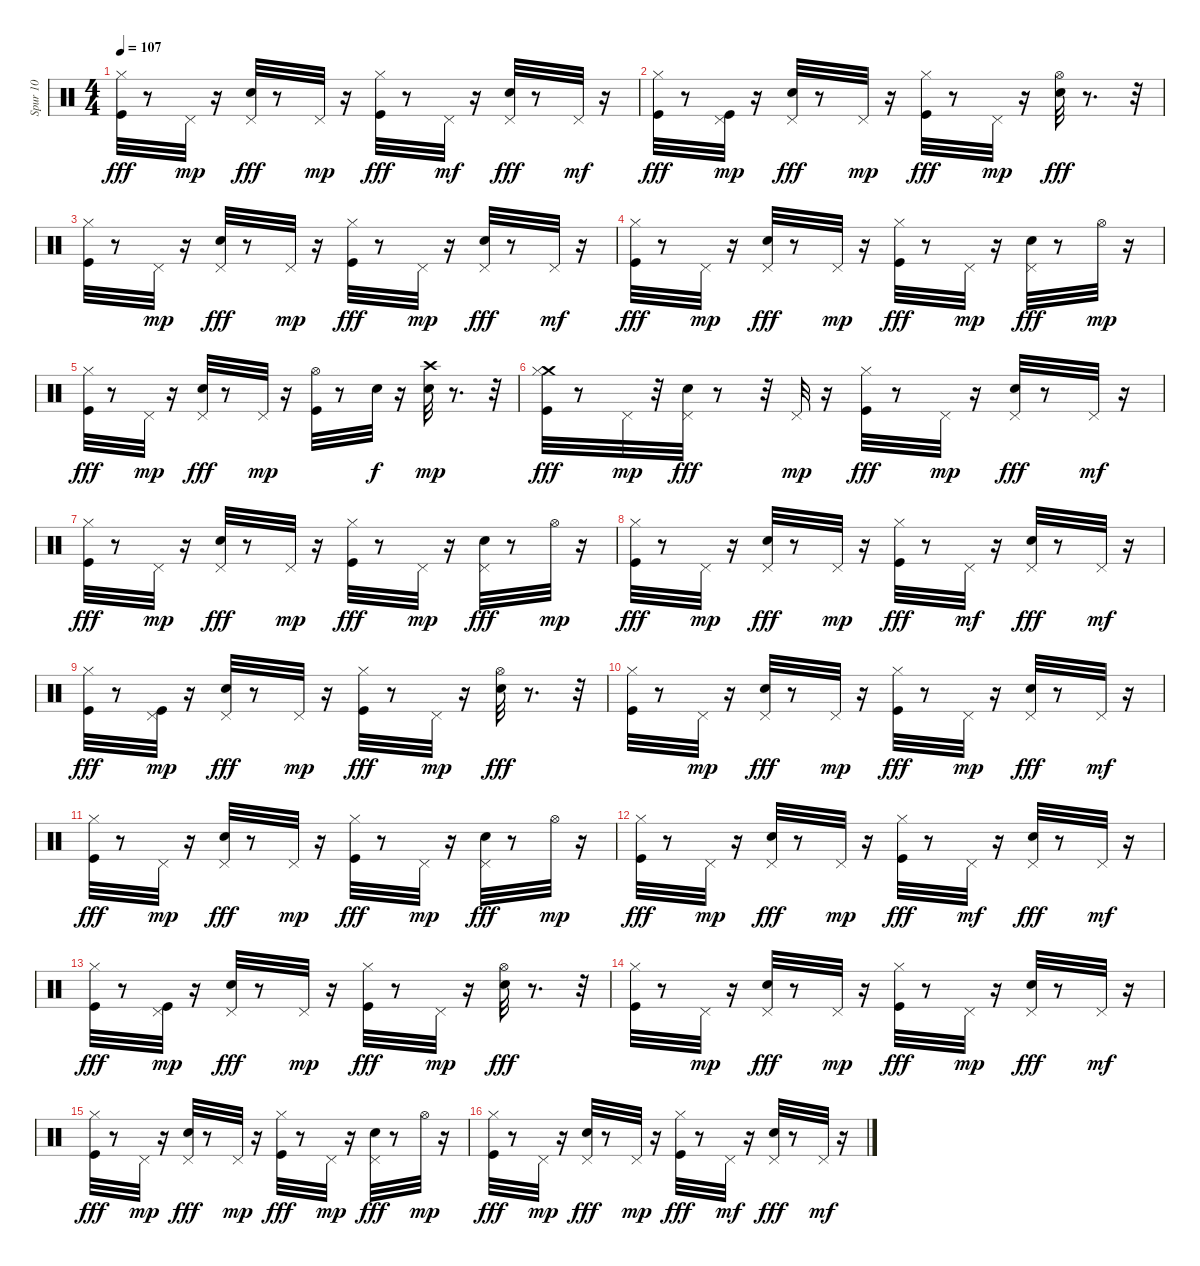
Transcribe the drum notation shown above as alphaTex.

\track ("Spur 10" "Spur 10") {instrument percussion}
\staff {score}
\articulation defaults
\ts (4 4)
\tempo 107
\clef neutral
\ks c
("Hi-Hat (closed)" "Kick (hit)").32{dy fff} r.8 "Pedal Hi-Hat (hit)".32{dy mp} r.16 ("Pedal Hi-Hat (hit)" "Snare (hit) 2").32{dy fff} r.8 "Pedal Hi-Hat (hit)".32{dy mp} r.16 ("Hi-Hat (closed)" "Kick (hit)").32{dy fff} r.8 "Pedal Hi-Hat (hit)".32{dy mf} r.16 ("Pedal Hi-Hat (hit)" "Snare (hit) 2").32{dy fff} r.8 "Pedal Hi-Hat (hit)".32{dy mf} r.16 |
("Hi-Hat (closed)" "Kick (hit)").32{dy fff} r.8 ("Pedal Hi-Hat (hit)" "Kick (hit)").32{dy mp} r.16 ("Pedal Hi-Hat (hit)" "Snare (hit) 2").32{dy fff} r.8 "Pedal Hi-Hat (hit)".32{dy mp} r.16 ("Hi-Hat (closed)" "Kick (hit)").32{dy fff} r.8 "Pedal Hi-Hat (hit)".32{dy mp} r.16 ("Hi-Hat (open)" "Snare (hit) 2").32{dy fff} r.8{d} r.32 |
("Hi-Hat (closed)" "Kick (hit)").32 r.8 "Pedal Hi-Hat (hit)".32{dy mp} r.16 ("Pedal Hi-Hat (hit)" "Snare (hit) 2").32{dy fff} r.8 "Pedal Hi-Hat (hit)".32{dy mp} r.16 ("Hi-Hat (closed)" "Kick (hit)").32{dy fff} r.8 "Pedal Hi-Hat (hit)".32{dy mp} r.16 ("Pedal Hi-Hat (hit)" "Snare (hit) 2").32{dy fff} r.8 "Pedal Hi-Hat (hit)".32{dy mf} r.16 |
("Hi-Hat (closed)" "Kick (hit)").32{dy fff} r.8 "Pedal Hi-Hat (hit)".32{dy mp} r.16 ("Pedal Hi-Hat (hit)" "Snare (hit) 2").32{dy fff} r.8 "Pedal Hi-Hat (hit)".32{dy mp} r.16 ("Hi-Hat (closed)" "Kick (hit)").32{dy fff} r.8 "Pedal Hi-Hat (hit)".32{dy mp} r.16 ("Pedal Hi-Hat (hit)" "Snare (hit) 2").32{dy fff} r.8 "Hi-Hat (open)".32{dy mp} r.16 |
("Hi-Hat (closed)" "Kick (hit)").32{dy fff} r.8 "Pedal Hi-Hat (hit)".32{dy mp} r.16 ("Pedal Hi-Hat (hit)" "Snare (hit) 2").32{dy fff} r.8 "Pedal Hi-Hat (hit)".32{dy mp} r.16 ("Kick (hit)" "Hi-Hat (open)").32 r.8 "Snare (hit) 2".32{dy f} r.16 ("Snare (hit) 2" "Crash high (hit)").32{dy mp} r.8{d} r.32 |
("Crash medium (hit)" "Hi-Hat (closed)" "Kick (hit)").32{dy fff} r.8 "Pedal Hi-Hat (hit)".32{dy mp} r.32 ("Pedal Hi-Hat (hit)" "Snare (hit) 2").32{dy fff} r.8 r.32 "Pedal Hi-Hat (hit)".32{dy mp} r.16 ("Hi-Hat (closed)" "Kick (hit)").32{dy fff} r.8 "Pedal Hi-Hat (hit)".32{dy mp} r.16 ("Pedal Hi-Hat (hit)" "Snare (hit) 2").32{dy fff} r.8 "Pedal Hi-Hat (hit)".32{dy mf} r.16 |
("Hi-Hat (closed)" "Kick (hit)").32{dy fff} r.8 "Pedal Hi-Hat (hit)".32{dy mp} r.16 ("Pedal Hi-Hat (hit)" "Snare (hit) 2").32{dy fff} r.8 "Pedal Hi-Hat (hit)".32{dy mp} r.16 ("Hi-Hat (closed)" "Kick (hit)").32{dy fff} r.8 "Pedal Hi-Hat (hit)".32{dy mp} r.16 ("Pedal Hi-Hat (hit)" "Snare (hit) 2").32{dy fff} r.8 "Hi-Hat (open)".32{dy mp} r.16 |
("Hi-Hat (closed)" "Kick (hit)").32{dy fff} r.8 "Pedal Hi-Hat (hit)".32{dy mp} r.16 ("Pedal Hi-Hat (hit)" "Snare (hit) 2").32{dy fff} r.8 "Pedal Hi-Hat (hit)".32{dy mp} r.16 ("Hi-Hat (closed)" "Kick (hit)").32{dy fff} r.8 "Pedal Hi-Hat (hit)".32{dy mf} r.16 ("Pedal Hi-Hat (hit)" "Snare (hit) 2").32{dy fff} r.8 "Pedal Hi-Hat (hit)".32{dy mf} r.16 |
("Hi-Hat (closed)" "Kick (hit)").32{dy fff} r.8 ("Pedal Hi-Hat (hit)" "Kick (hit)").32{dy mp} r.16 ("Pedal Hi-Hat (hit)" "Snare (hit) 2").32{dy fff} r.8 "Pedal Hi-Hat (hit)".32{dy mp} r.16 ("Hi-Hat (closed)" "Kick (hit)").32{dy fff} r.8 "Pedal Hi-Hat (hit)".32{dy mp} r.16 ("Hi-Hat (open)" "Snare (hit) 2").32{dy fff} r.8{d} r.32 |
("Hi-Hat (closed)" "Kick (hit)").32 r.8 "Pedal Hi-Hat (hit)".32{dy mp} r.16 ("Pedal Hi-Hat (hit)" "Snare (hit) 2").32{dy fff} r.8 "Pedal Hi-Hat (hit)".32{dy mp} r.16 ("Hi-Hat (closed)" "Kick (hit)").32{dy fff} r.8 "Pedal Hi-Hat (hit)".32{dy mp} r.16 ("Pedal Hi-Hat (hit)" "Snare (hit) 2").32{dy fff} r.8 "Pedal Hi-Hat (hit)".32{dy mf} r.16 |
("Hi-Hat (closed)" "Kick (hit)").32{dy fff} r.8 "Pedal Hi-Hat (hit)".32{dy mp} r.16 ("Pedal Hi-Hat (hit)" "Snare (hit) 2").32{dy fff} r.8 "Pedal Hi-Hat (hit)".32{dy mp} r.16 ("Hi-Hat (closed)" "Kick (hit)").32{dy fff} r.8 "Pedal Hi-Hat (hit)".32{dy mp} r.16 ("Pedal Hi-Hat (hit)" "Snare (hit) 2").32{dy fff} r.8 "Hi-Hat (open)".32{dy mp} r.16 |
("Hi-Hat (closed)" "Kick (hit)").32{dy fff} r.8 "Pedal Hi-Hat (hit)".32{dy mp} r.16 ("Pedal Hi-Hat (hit)" "Snare (hit) 2").32{dy fff} r.8 "Pedal Hi-Hat (hit)".32{dy mp} r.16 ("Hi-Hat (closed)" "Kick (hit)").32{dy fff} r.8 "Pedal Hi-Hat (hit)".32{dy mf} r.16 ("Pedal Hi-Hat (hit)" "Snare (hit) 2").32{dy fff} r.8 "Pedal Hi-Hat (hit)".32{dy mf} r.16 |
("Hi-Hat (closed)" "Kick (hit)").32{dy fff} r.8 ("Pedal Hi-Hat (hit)" "Kick (hit)").32{dy mp} r.16 ("Pedal Hi-Hat (hit)" "Snare (hit) 2").32{dy fff} r.8 "Pedal Hi-Hat (hit)".32{dy mp} r.16 ("Hi-Hat (closed)" "Kick (hit)").32{dy fff} r.8 "Pedal Hi-Hat (hit)".32{dy mp} r.16 ("Hi-Hat (open)" "Snare (hit) 2").32{dy fff} r.8{d} r.32 |
("Hi-Hat (closed)" "Kick (hit)").32 r.8 "Pedal Hi-Hat (hit)".32{dy mp} r.16 ("Pedal Hi-Hat (hit)" "Snare (hit) 2").32{dy fff} r.8 "Pedal Hi-Hat (hit)".32{dy mp} r.16 ("Hi-Hat (closed)" "Kick (hit)").32{dy fff} r.8 "Pedal Hi-Hat (hit)".32{dy mp} r.16 ("Pedal Hi-Hat (hit)" "Snare (hit) 2").32{dy fff} r.8 "Pedal Hi-Hat (hit)".32{dy mf} r.16 |
("Hi-Hat (closed)" "Kick (hit)").32{dy fff} r.8 "Pedal Hi-Hat (hit)".32{dy mp} r.16 ("Pedal Hi-Hat (hit)" "Snare (hit) 2").32{dy fff} r.8 "Pedal Hi-Hat (hit)".32{dy mp} r.16 ("Hi-Hat (closed)" "Kick (hit)").32{dy fff} r.8 "Pedal Hi-Hat (hit)".32{dy mp} r.16 ("Pedal Hi-Hat (hit)" "Snare (hit) 2").32{dy fff} r.8 "Hi-Hat (open)".32{dy mp} r.16 |
("Hi-Hat (closed)" "Kick (hit)").32{dy fff} r.8 "Pedal Hi-Hat (hit)".32{dy mp} r.16 ("Pedal Hi-Hat (hit)" "Snare (hit) 2").32{dy fff} r.8 "Pedal Hi-Hat (hit)".32{dy mp} r.16 ("Hi-Hat (closed)" "Kick (hit)").32{dy fff} r.8 "Pedal Hi-Hat (hit)".32{dy mf} r.16 ("Pedal Hi-Hat (hit)" "Snare (hit) 2").32{dy fff} r.8 "Pedal Hi-Hat (hit)".32{dy mf} r.16
